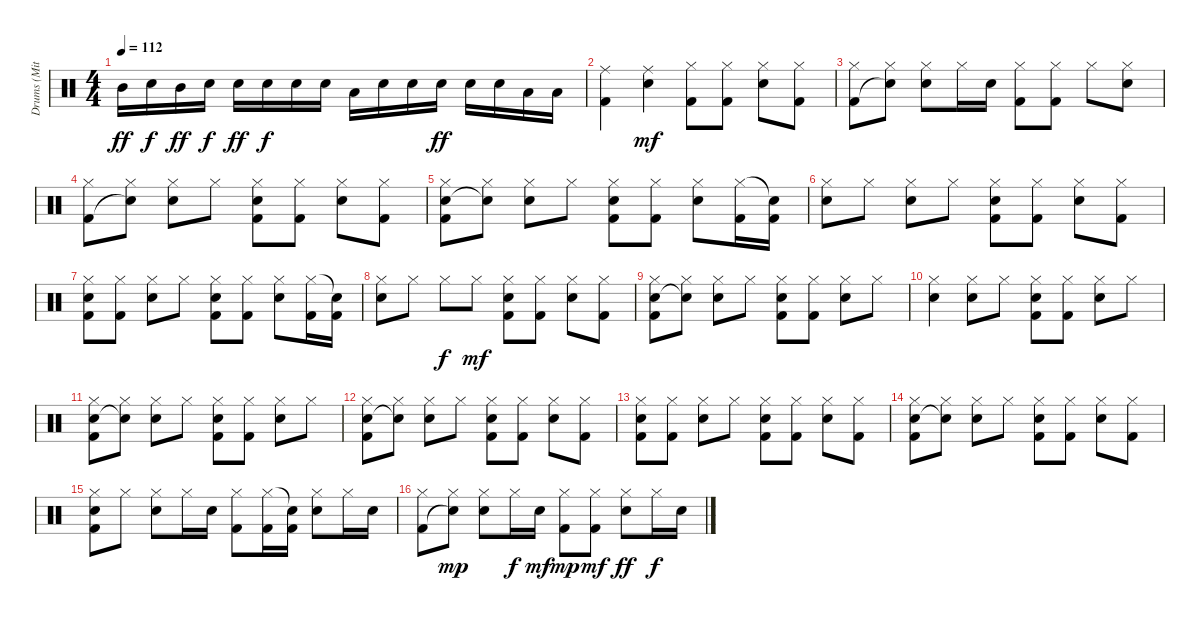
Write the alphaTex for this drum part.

\track ("Drums (Mitch Mitchell)" "Drums (Mit") {instrument percussion}
\staff {score}
\articulation defaults
\ts (4 4)
\tempo 112
\clef neutral
\ks c "Mid Tom (hit)".16{dy ff} "Electric Snare (hit)".16{dy f} "Mid Tom (hit)".16{dy ff} "Electric Snare (hit)".16{dy f} "Electric Snare (hit)".16{dy ff} "Electric Snare (hit)".16{dy f} "Electric Snare (hit)".16 "Electric Snare (hit)".16 "Low Tom (hit)".16 "Electric Snare (hit)".16 "Electric Snare (hit)".16 "Electric Snare (hit)".16{dy ff} "Electric Snare (hit)".16 "Electric Snare (hit)".16 "Low Tom (hit)".16 "Low Tom (hit)".16
|
("Ride (middle)" "Kick (hit) 2").4 ("Ride (middle)" "Electric Snare (hit)").4{dy mf} ("Hi-Hat (closed)" "Kick (hit) 2").8 ("Hi-Hat (closed)" "Kick (hit) 2").8 ("Hi-Hat (closed)" "Electric Snare (hit)").8 ("Hi-Hat (closed)" "Kick (hit) 2").8 |
("Hi-Hat (closed)" "Kick (hit) 2").8 ("Hi-Hat (closed)" "Snare (hit)"{t}).8 ("Hi-Hat (closed)" "Electric Snare (hit)").8 "Hi-Hat (closed)".16 "Electric Snare (hit)".16 ("Hi-Hat (closed)" "Kick (hit) 2").8 ("Hi-Hat (closed)" "Kick (hit) 2").8 "Hi-Hat (closed)".8 ("Hi-Hat (closed)" "Electric Snare (hit)").8 |
("Hi-Hat (closed)" "Kick (hit) 2").8 ("Hi-Hat (closed)" "Snare (hit)"{t}).8 ("Hi-Hat (closed)" "Electric Snare (hit)").8 "Hi-Hat (closed)".8 ("Hi-Hat (closed)" "Electric Snare (hit)" "Kick (hit) 2").8 ("Hi-Hat (closed)" "Kick (hit) 2").8 ("Hi-Hat (closed)" "Electric Snare (hit)").8 ("Hi-Hat (closed)" "Kick (hit) 2").8 |
("Hi-Hat (closed)" "Electric Snare (hit)" "Kick (hit) 2").8 ("Hi-Hat (closed)" "Snare (hit)"{t}).8 ("Hi-Hat (closed)" "Electric Snare (hit)").8 "Hi-Hat (closed)".8 ("Hi-Hat (closed)" "Electric Snare (hit)" "Kick (hit) 2").8 ("Hi-Hat (closed)" "Kick (hit) 2").8 ("Hi-Hat (closed)" "Electric Snare (hit)").8 ("Hi-Hat (closed)" "Kick (hit) 2").16 ("Snare (hit)"{t} "Kick (hit) 2").16 |
("Hi-Hat (closed)" "Electric Snare (hit)").8 "Hi-Hat (closed)".8 ("Hi-Hat (closed)" "Electric Snare (hit)").8 "Hi-Hat (closed)".8 ("Hi-Hat (closed)" "Electric Snare (hit)" "Kick (hit) 2").8 ("Hi-Hat (closed)" "Kick (hit) 2").8 ("Hi-Hat (closed)" "Electric Snare (hit)").8 ("Hi-Hat (closed)" "Kick (hit) 2").8 |
("Hi-Hat (closed)" "Electric Snare (hit)" "Kick (hit) 2").8 ("Hi-Hat (closed)" "Kick (hit) 2").8 ("Hi-Hat (closed)" "Electric Snare (hit)").8 "Hi-Hat (closed)".8 ("Hi-Hat (closed)" "Electric Snare (hit)" "Kick (hit) 2").8 ("Hi-Hat (closed)" "Kick (hit) 2").8 ("Hi-Hat (closed)" "Electric Snare (hit)").8 ("Hi-Hat (closed)" "Kick (hit) 2").16 ("Snare (hit)"{t} "Kick (hit) 2").16 |
("Hi-Hat (closed)" "Electric Snare (hit)").8 "Hi-Hat (closed)".8 "Hi-Hat (closed)".8{dy f} "Hi-Hat (closed)".8{dy mf} ("Hi-Hat (closed)" "Electric Snare (hit)" "Kick (hit) 2").8 ("Hi-Hat (closed)" "Kick (hit) 2").8 ("Hi-Hat (closed)" "Electric Snare (hit)").8 ("Hi-Hat (closed)" "Kick (hit) 2").8 |
("Hi-Hat (closed)" "Electric Snare (hit)" "Kick (hit) 2").8 ("Hi-Hat (closed)" "Snare (hit)"{t}).8 ("Hi-Hat (closed)" "Electric Snare (hit)").8 "Hi-Hat (closed)".8 ("Hi-Hat (closed)" "Electric Snare (hit)" "Kick (hit) 2").8 ("Hi-Hat (closed)" "Kick (hit) 2").8 ("Hi-Hat (closed)" "Electric Snare (hit)").8 "Hi-Hat (closed)".8 |
("Hi-Hat (closed)" "Electric Snare (hit)").4 ("Hi-Hat (closed)" "Electric Snare (hit)").8 "Hi-Hat (closed)".8 ("Hi-Hat (closed)" "Electric Snare (hit)" "Kick (hit) 2").8 ("Hi-Hat (closed)" "Kick (hit) 2").8 ("Hi-Hat (closed)" "Electric Snare (hit)").8 "Hi-Hat (closed)".8 |
("Hi-Hat (closed)" "Electric Snare (hit)" "Kick (hit) 2").8 ("Hi-Hat (closed)" "Snare (hit)"{t}).8 ("Hi-Hat (closed)" "Electric Snare (hit)").8 "Hi-Hat (closed)".8 ("Hi-Hat (closed)" "Electric Snare (hit)" "Kick (hit) 2").8 ("Hi-Hat (closed)" "Kick (hit) 2").8 ("Hi-Hat (closed)" "Electric Snare (hit)").8 "Hi-Hat (closed)".8 |
("Hi-Hat (closed)" "Electric Snare (hit)" "Kick (hit) 2").8 ("Hi-Hat (closed)" "Snare (hit)"{t}).8 ("Hi-Hat (closed)" "Electric Snare (hit)").8 "Hi-Hat (closed)".8 ("Hi-Hat (closed)" "Electric Snare (hit)" "Kick (hit) 2").8 ("Hi-Hat (closed)" "Kick (hit) 2").8 ("Hi-Hat (closed)" "Electric Snare (hit)").8 ("Hi-Hat (closed)" "Kick (hit) 2").8 |
("Hi-Hat (closed)" "Electric Snare (hit)" "Kick (hit) 2").8 ("Hi-Hat (closed)" "Kick (hit) 2").8 ("Hi-Hat (closed)" "Electric Snare (hit)").8 "Hi-Hat (closed)".8 ("Hi-Hat (closed)" "Electric Snare (hit)" "Kick (hit) 2").8 ("Hi-Hat (closed)" "Kick (hit) 2").8 ("Hi-Hat (closed)" "Electric Snare (hit)").8 ("Hi-Hat (closed)" "Kick (hit) 2").8 |
("Hi-Hat (closed)" "Electric Snare (hit)" "Kick (hit) 2").8 ("Hi-Hat (closed)" "Snare (hit)"{t}).8 ("Hi-Hat (closed)" "Electric Snare (hit)").8 "Hi-Hat (closed)".8 ("Hi-Hat (closed)" "Electric Snare (hit)" "Kick (hit) 2").8 ("Hi-Hat (closed)" "Kick (hit) 2").8 ("Hi-Hat (closed)" "Electric Snare (hit)").8 ("Hi-Hat (closed)" "Kick (hit) 2").8 |
("Hi-Hat (closed)" "Electric Snare (hit)" "Kick (hit) 2").8 "Hi-Hat (closed)".8 ("Hi-Hat (closed)" "Electric Snare (hit)").8 "Hi-Hat (closed)".16 "Electric Snare (hit)".16 ("Hi-Hat (closed)" "Kick (hit) 2").8 ("Hi-Hat (closed)" "Kick (hit) 2").16 ("Snare (hit)"{t} "Kick (hit) 2").16 ("Hi-Hat (closed)" "Electric Snare (hit)").8 "Hi-Hat (closed)".16 "Electric Snare (hit)".16 |
("Hi-Hat (closed)" "Kick (hit) 2").8 ("Hi-Hat (closed)" "Snare (hit)"{t}).8{dy mp} ("Hi-Hat (closed)" "Electric Snare (hit)").8 "Hi-Hat (closed)".16{dy f} "Electric Snare (hit)".16{dy mf} ("Hi-Hat (closed)" "Kick (hit) 2").8{dy mp} ("Hi-Hat (closed)" "Kick (hit) 2").8{dy mf} ("Hi-Hat (closed)" "Electric Snare (hit)").8{dy ff} "Hi-Hat (closed)".16{dy f} "Electric Snare (hit)".16
